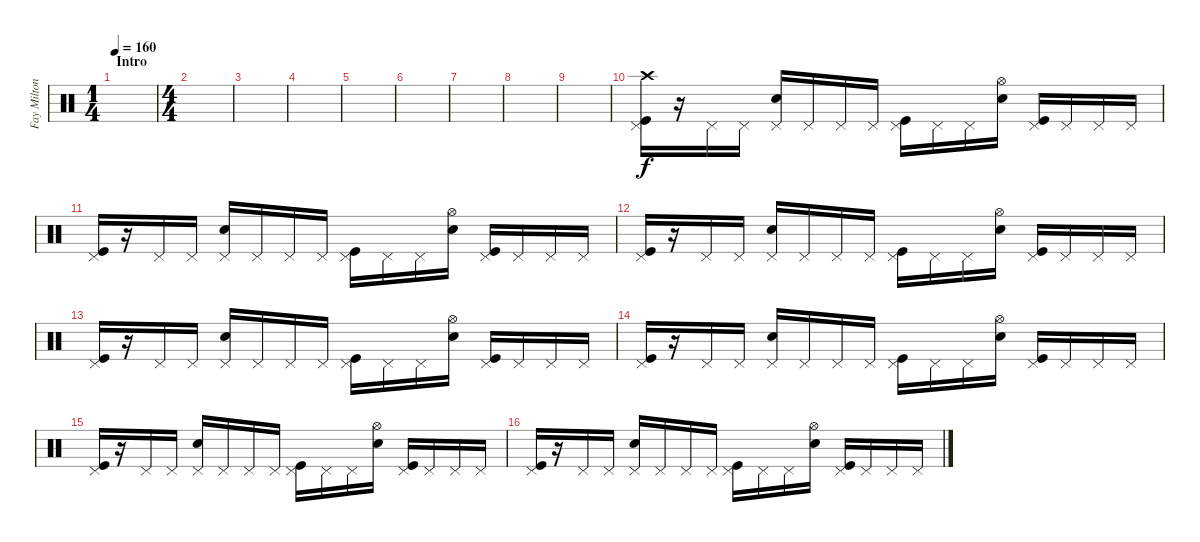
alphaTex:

\track ("Fay Milton - Drums" "Fay Milton") {instrument percussion}
\staff {score}
\articulation defaults
\ts (1 4)
\section ("" "Intro")
\tempo 160
\clef neutral
\ks c
|
\ts (4 4)
|
|
|
|
|
|
|
|
("Crash high (hit)" "Pedal Hi-Hat (hit)" "Kick (hit)").16 r.16 "Pedal Hi-Hat (hit)".16 "Pedal Hi-Hat (hit)".16 ("Pedal Hi-Hat (hit)" "Snare (hit) 2").16 "Pedal Hi-Hat (hit)".16 "Pedal Hi-Hat (hit)".16 "Pedal Hi-Hat (hit)".16 ("Pedal Hi-Hat (hit)" "Kick (hit)").16 "Pedal Hi-Hat (hit)".16 "Pedal Hi-Hat (hit)".16 ("Hi-Hat (open)" "Snare (hit) 2").16 ("Pedal Hi-Hat (hit)" "Kick (hit)").16 "Pedal Hi-Hat (hit)".16 "Pedal Hi-Hat (hit)".16 "Pedal Hi-Hat (hit)".16 |
("Pedal Hi-Hat (hit)" "Kick (hit)").16 r.16 "Pedal Hi-Hat (hit)".16 "Pedal Hi-Hat (hit)".16 ("Pedal Hi-Hat (hit)" "Snare (hit) 2").16 "Pedal Hi-Hat (hit)".16 "Pedal Hi-Hat (hit)".16 "Pedal Hi-Hat (hit)".16 ("Pedal Hi-Hat (hit)" "Kick (hit)").16 "Pedal Hi-Hat (hit)".16 "Pedal Hi-Hat (hit)".16 ("Hi-Hat (open)" "Snare (hit) 2").16 ("Pedal Hi-Hat (hit)" "Kick (hit)").16 "Pedal Hi-Hat (hit)".16 "Pedal Hi-Hat (hit)".16 "Pedal Hi-Hat (hit)".16 |
("Pedal Hi-Hat (hit)" "Kick (hit)").16 r.16 "Pedal Hi-Hat (hit)".16 "Pedal Hi-Hat (hit)".16 ("Pedal Hi-Hat (hit)" "Snare (hit) 2").16 "Pedal Hi-Hat (hit)".16 "Pedal Hi-Hat (hit)".16 "Pedal Hi-Hat (hit)".16 ("Pedal Hi-Hat (hit)" "Kick (hit)").16 "Pedal Hi-Hat (hit)".16 "Pedal Hi-Hat (hit)".16 ("Hi-Hat (open)" "Snare (hit) 2").16 ("Pedal Hi-Hat (hit)" "Kick (hit)").16 "Pedal Hi-Hat (hit)".16 "Pedal Hi-Hat (hit)".16 "Pedal Hi-Hat (hit)".16 |
("Pedal Hi-Hat (hit)" "Kick (hit)").16 r.16 "Pedal Hi-Hat (hit)".16 "Pedal Hi-Hat (hit)".16 ("Pedal Hi-Hat (hit)" "Snare (hit) 2").16 "Pedal Hi-Hat (hit)".16 "Pedal Hi-Hat (hit)".16 "Pedal Hi-Hat (hit)".16 ("Pedal Hi-Hat (hit)" "Kick (hit)").16 "Pedal Hi-Hat (hit)".16 "Pedal Hi-Hat (hit)".16 ("Hi-Hat (open)" "Snare (hit) 2").16 ("Pedal Hi-Hat (hit)" "Kick (hit)").16 "Pedal Hi-Hat (hit)".16 "Pedal Hi-Hat (hit)".16 "Pedal Hi-Hat (hit)".16 |
("Pedal Hi-Hat (hit)" "Kick (hit)").16 r.16 "Pedal Hi-Hat (hit)".16 "Pedal Hi-Hat (hit)".16 ("Pedal Hi-Hat (hit)" "Snare (hit) 2").16 "Pedal Hi-Hat (hit)".16 "Pedal Hi-Hat (hit)".16 "Pedal Hi-Hat (hit)".16 ("Pedal Hi-Hat (hit)" "Kick (hit)").16 "Pedal Hi-Hat (hit)".16 "Pedal Hi-Hat (hit)".16 ("Hi-Hat (open)" "Snare (hit) 2").16 ("Pedal Hi-Hat (hit)" "Kick (hit)").16 "Pedal Hi-Hat (hit)".16 "Pedal Hi-Hat (hit)".16 "Pedal Hi-Hat (hit)".16 |
("Pedal Hi-Hat (hit)" "Kick (hit)").16 r.16 "Pedal Hi-Hat (hit)".16 "Pedal Hi-Hat (hit)".16 ("Pedal Hi-Hat (hit)" "Snare (hit) 2").16 "Pedal Hi-Hat (hit)".16 "Pedal Hi-Hat (hit)".16 "Pedal Hi-Hat (hit)".16 ("Pedal Hi-Hat (hit)" "Kick (hit)").16 "Pedal Hi-Hat (hit)".16 "Pedal Hi-Hat (hit)".16 ("Hi-Hat (open)" "Snare (hit) 2").16 ("Pedal Hi-Hat (hit)" "Kick (hit)").16 "Pedal Hi-Hat (hit)".16 "Pedal Hi-Hat (hit)".16 "Pedal Hi-Hat (hit)".16 |
("Pedal Hi-Hat (hit)" "Kick (hit)").16 r.16 "Pedal Hi-Hat (hit)".16 "Pedal Hi-Hat (hit)".16 ("Pedal Hi-Hat (hit)" "Snare (hit) 2").16 "Pedal Hi-Hat (hit)".16 "Pedal Hi-Hat (hit)".16 "Pedal Hi-Hat (hit)".16 ("Pedal Hi-Hat (hit)" "Kick (hit)").16 "Pedal Hi-Hat (hit)".16 "Pedal Hi-Hat (hit)".16 ("Hi-Hat (open)" "Snare (hit) 2").16 ("Pedal Hi-Hat (hit)" "Kick (hit)").16 "Pedal Hi-Hat (hit)".16 "Pedal Hi-Hat (hit)".16 "Pedal Hi-Hat (hit)".16
